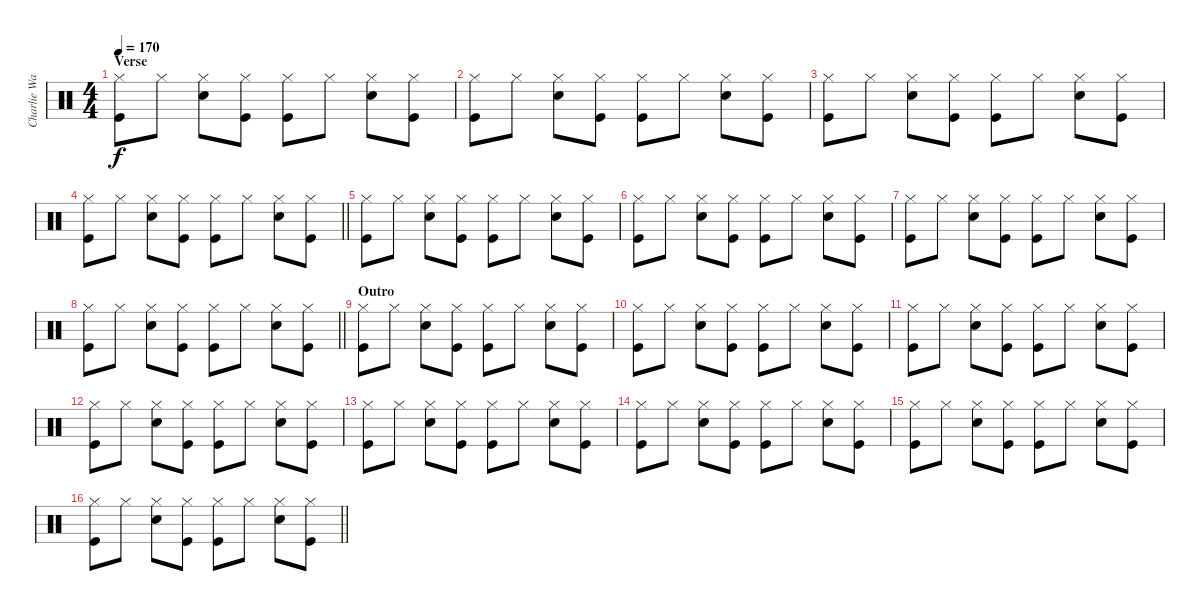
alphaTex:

\track ("Charlie Watts" "Charlie Wa") {instrument percussion}
\staff {score}
\articulation defaults
\ts (4 4)
\section ("" "Verse")
\tempo 170
\clef neutral
\ks c
("Hi-Hat (closed)" "Kick (hit)").8{dy f} "Hi-Hat (closed)".8 ("Hi-Hat (closed)" "Snare (hit) 2").8 ("Hi-Hat (closed)" "Kick (hit)").8 ("Hi-Hat (closed)" "Kick (hit)").8 "Hi-Hat (closed)".8 ("Hi-Hat (closed)" "Snare (hit) 2").8 ("Hi-Hat (closed)" "Kick (hit)").8 |
("Hi-Hat (closed)" "Kick (hit)").8 "Hi-Hat (closed)".8 ("Hi-Hat (closed)" "Snare (hit) 2").8 ("Hi-Hat (closed)" "Kick (hit)").8 ("Hi-Hat (closed)" "Kick (hit)").8 "Hi-Hat (closed)".8 ("Hi-Hat (closed)" "Snare (hit) 2").8 ("Hi-Hat (closed)" "Kick (hit)").8 |
("Hi-Hat (closed)" "Kick (hit)").8 "Hi-Hat (closed)".8 ("Hi-Hat (closed)" "Snare (hit) 2").8 ("Hi-Hat (closed)" "Kick (hit)").8 ("Hi-Hat (closed)" "Kick (hit)").8 "Hi-Hat (closed)".8 ("Hi-Hat (closed)" "Snare (hit) 2").8 ("Hi-Hat (closed)" "Kick (hit)").8 |
\barLineRight lightlight
("Hi-Hat (closed)" "Kick (hit)").8 "Hi-Hat (closed)".8 ("Hi-Hat (closed)" "Snare (hit) 2").8 ("Hi-Hat (closed)" "Kick (hit)").8 ("Hi-Hat (closed)" "Kick (hit)").8 "Hi-Hat (closed)".8 ("Hi-Hat (closed)" "Snare (hit) 2").8 ("Hi-Hat (closed)" "Kick (hit)").8 |
("Hi-Hat (closed)" "Kick (hit)").8 "Hi-Hat (closed)".8 ("Hi-Hat (closed)" "Snare (hit) 2").8 ("Hi-Hat (closed)" "Kick (hit)").8 ("Hi-Hat (closed)" "Kick (hit)").8 "Hi-Hat (closed)".8 ("Hi-Hat (closed)" "Snare (hit) 2").8 ("Hi-Hat (closed)" "Kick (hit)").8 |
("Hi-Hat (closed)" "Kick (hit)").8 "Hi-Hat (closed)".8 ("Hi-Hat (closed)" "Snare (hit) 2").8 ("Hi-Hat (closed)" "Kick (hit)").8 ("Hi-Hat (closed)" "Kick (hit)").8 "Hi-Hat (closed)".8 ("Hi-Hat (closed)" "Snare (hit) 2").8 ("Hi-Hat (closed)" "Kick (hit)").8 |
("Hi-Hat (closed)" "Kick (hit)").8 "Hi-Hat (closed)".8 ("Hi-Hat (closed)" "Snare (hit) 2").8 ("Hi-Hat (closed)" "Kick (hit)").8 ("Hi-Hat (closed)" "Kick (hit)").8 "Hi-Hat (closed)".8 ("Hi-Hat (closed)" "Snare (hit) 2").8 ("Hi-Hat (closed)" "Kick (hit)").8 |
\barLineRight lightlight
("Hi-Hat (closed)" "Kick (hit)").8 "Hi-Hat (closed)".8 ("Hi-Hat (closed)" "Snare (hit) 2").8 ("Hi-Hat (closed)" "Kick (hit)").8 ("Hi-Hat (closed)" "Kick (hit)").8 "Hi-Hat (closed)".8 ("Hi-Hat (closed)" "Snare (hit) 2").8 ("Hi-Hat (closed)" "Kick (hit)").8 |
\section ("" "Outro")
("Hi-Hat (closed)" "Kick (hit)").8 "Hi-Hat (closed)".8 ("Hi-Hat (closed)" "Snare (hit) 2").8 ("Hi-Hat (closed)" "Kick (hit)").8 ("Hi-Hat (closed)" "Kick (hit)").8 "Hi-Hat (closed)".8 ("Hi-Hat (closed)" "Snare (hit) 2").8 ("Hi-Hat (closed)" "Kick (hit)").8 |
("Hi-Hat (closed)" "Kick (hit)").8 "Hi-Hat (closed)".8 ("Hi-Hat (closed)" "Snare (hit) 2").8 ("Hi-Hat (closed)" "Kick (hit)").8 ("Hi-Hat (closed)" "Kick (hit)").8 "Hi-Hat (closed)".8 ("Hi-Hat (closed)" "Snare (hit) 2").8 ("Hi-Hat (closed)" "Kick (hit)").8 |
("Hi-Hat (closed)" "Kick (hit)").8 "Hi-Hat (closed)".8 ("Hi-Hat (closed)" "Snare (hit) 2").8 ("Hi-Hat (closed)" "Kick (hit)").8 ("Hi-Hat (closed)" "Kick (hit)").8 "Hi-Hat (closed)".8 ("Hi-Hat (closed)" "Snare (hit) 2").8 ("Hi-Hat (closed)" "Kick (hit)").8 |
("Hi-Hat (closed)" "Kick (hit)").8 "Hi-Hat (closed)".8 ("Hi-Hat (closed)" "Snare (hit) 2").8 ("Hi-Hat (closed)" "Kick (hit)").8 ("Hi-Hat (closed)" "Kick (hit)").8 "Hi-Hat (closed)".8 ("Hi-Hat (closed)" "Snare (hit) 2").8 ("Hi-Hat (closed)" "Kick (hit)").8 |
("Hi-Hat (closed)" "Kick (hit)").8 "Hi-Hat (closed)".8 ("Hi-Hat (closed)" "Snare (hit) 2").8 ("Hi-Hat (closed)" "Kick (hit)").8 ("Hi-Hat (closed)" "Kick (hit)").8 "Hi-Hat (closed)".8 ("Hi-Hat (closed)" "Snare (hit) 2").8 ("Hi-Hat (closed)" "Kick (hit)").8 |
("Hi-Hat (closed)" "Kick (hit)").8 "Hi-Hat (closed)".8 ("Hi-Hat (closed)" "Snare (hit) 2").8 ("Hi-Hat (closed)" "Kick (hit)").8 ("Hi-Hat (closed)" "Kick (hit)").8 "Hi-Hat (closed)".8 ("Hi-Hat (closed)" "Snare (hit) 2").8 ("Hi-Hat (closed)" "Kick (hit)").8 |
("Hi-Hat (closed)" "Kick (hit)").8 "Hi-Hat (closed)".8 ("Hi-Hat (closed)" "Snare (hit) 2").8 ("Hi-Hat (closed)" "Kick (hit)").8 ("Hi-Hat (closed)" "Kick (hit)").8 "Hi-Hat (closed)".8 ("Hi-Hat (closed)" "Snare (hit) 2").8 ("Hi-Hat (closed)" "Kick (hit)").8 |
\barLineRight lightlight
("Hi-Hat (closed)" "Kick (hit)").8 "Hi-Hat (closed)".8 ("Hi-Hat (closed)" "Snare (hit) 2").8 ("Hi-Hat (closed)" "Kick (hit)").8 ("Hi-Hat (closed)" "Kick (hit)").8 "Hi-Hat (closed)".8 ("Hi-Hat (closed)" "Snare (hit) 2").8 ("Hi-Hat (closed)" "Kick (hit)").8
